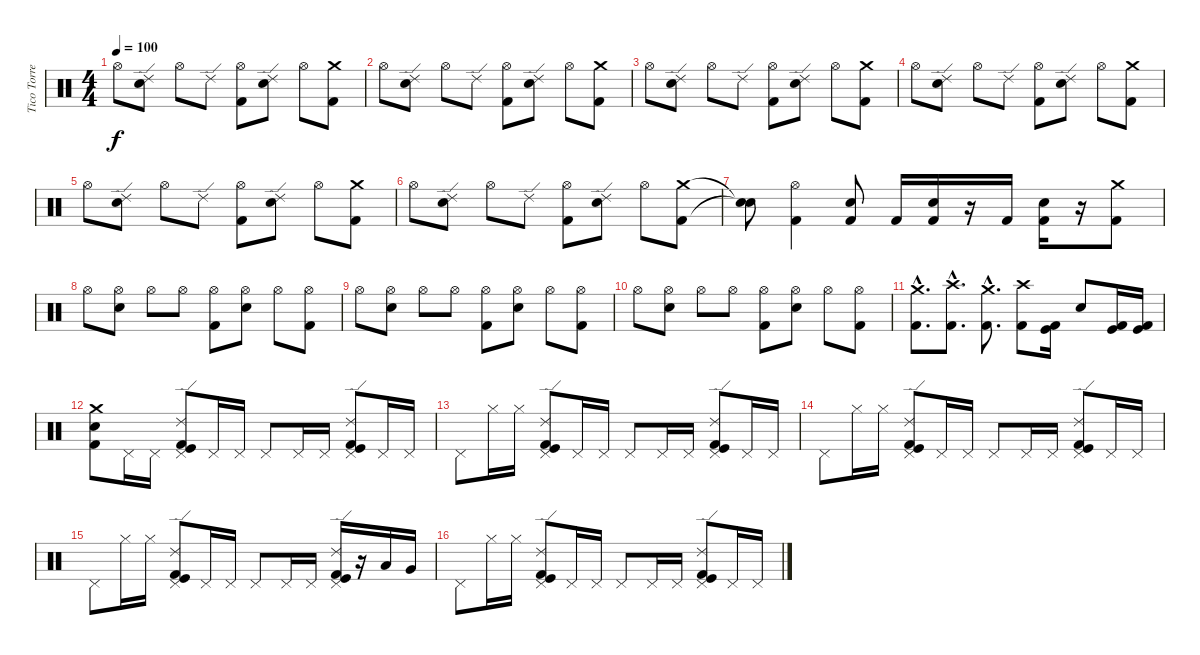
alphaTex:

\track ("Tico Torres" "Tico Torre") {instrument percussion}
\staff {score}
\articulation defaults
\ts (4 4)
\tempo 100
\clef neutral
\ks c "Hi-Hat (open)".8{dy f}
("Ride (edge) 2" "Electric Snare (hit)").8 "Hi-Hat (open)".8 "Ride (edge) 2".8 ("Hi-Hat (open)" "Kick (hit) 2").8 ("Ride (edge) 2" "Electric Snare (hit)").8 "Hi-Hat (open)".8 ("Crash medium (hit)" "Kick (hit) 2").8 |
"Hi-Hat (open)".8 ("Ride (edge) 2" "Electric Snare (hit)").8 "Hi-Hat (open)".8 "Ride (edge) 2".8 ("Hi-Hat (open)" "Kick (hit) 2").8 ("Ride (edge) 2" "Electric Snare (hit)").8 "Hi-Hat (open)".8 ("Crash medium (hit)" "Kick (hit) 2").8 |
"Hi-Hat (open)".8 ("Ride (edge) 2" "Electric Snare (hit)").8 "Hi-Hat (open)".8 "Ride (edge) 2".8 ("Hi-Hat (open)" "Kick (hit) 2").8 ("Ride (edge) 2" "Electric Snare (hit)").8 "Hi-Hat (open)".8 ("Crash medium (hit)" "Kick (hit) 2").8 |
"Hi-Hat (open)".8 ("Ride (edge) 2" "Electric Snare (hit)").8 "Hi-Hat (open)".8 "Ride (edge) 2".8 ("Hi-Hat (open)" "Kick (hit) 2").8 ("Ride (edge) 2" "Electric Snare (hit)").8 "Hi-Hat (open)".8 ("Crash medium (hit)" "Kick (hit) 2").8 |
"Hi-Hat (open)".8 ("Ride (edge) 2" "Electric Snare (hit)").8 "Hi-Hat (open)".8 "Ride (edge) 2".8 ("Hi-Hat (open)" "Kick (hit) 2").8 ("Ride (edge) 2" "Electric Snare (hit)").8 "Hi-Hat (open)".8 ("Crash medium (hit)" "Kick (hit) 2").8 |
"Hi-Hat (open)".8 ("Ride (edge) 2" "Electric Snare (hit)").8 "Hi-Hat (open)".8 "Ride (edge) 2".8 ("Hi-Hat (open)" "Kick (hit) 2").8 ("Ride (edge) 2" "Electric Snare (hit)").8 "Hi-Hat (open)".8 ("Crash medium (hit)" "Kick (hit) 2").8 |
("Snare (hit)"{t} "Snare (hit)"{t}).8 ("Hi-Hat (open)" "Kick (hit) 2").4 ("Electric Snare (hit)" "Kick (hit) 2").8 "Kick (hit) 2".16 ("Electric Snare (hit)" "Kick (hit) 2").16 r.16 "Kick (hit) 2".16 ("Electric Snare (hit)" "Kick (hit) 2").16 r.16 ("Crash medium (hit)" "Kick (hit) 2").8 |
"Hi-Hat (open)".8 ("Hi-Hat (open)" "Electric Snare (hit)").8 "Hi-Hat (open)".8 "Hi-Hat (open)".8 ("Hi-Hat (open)" "Kick (hit) 2").8 ("Hi-Hat (open)" "Electric Snare (hit)").8 "Hi-Hat (open)".8 ("Hi-Hat (open)" "Kick (hit) 2").8 |
"Hi-Hat (open)".8 ("Hi-Hat (open)" "Electric Snare (hit)").8 "Hi-Hat (open)".8 "Hi-Hat (open)".8 ("Hi-Hat (open)" "Kick (hit) 2").8 ("Hi-Hat (open)" "Electric Snare (hit)").8 "Hi-Hat (open)".8 ("Hi-Hat (open)" "Kick (hit) 2").8 |
"Hi-Hat (open)".8 ("Hi-Hat (open)" "Electric Snare (hit)").8 "Hi-Hat (open)".8 "Hi-Hat (open)".8 ("Hi-Hat (open)" "Kick (hit) 2").8 ("Hi-Hat (open)" "Electric Snare (hit)").8 "Hi-Hat (open)".8 ("Hi-Hat (open)" "Kick (hit) 2").8 |
("Crash medium (hit)"{hac} "Kick (hit) 2"{hac}).8{d} ("Crash high (hit)"{hac} "Kick (hit) 2"{hac}).8{d} ("Crash medium (hit)"{hac} "Kick (hit) 2"{hac}).8{d} ("Crash high (hit)" "Kick (hit) 2").8 ("Kick (hit)" "Kick (hit) 2").16 "Electric Snare (hit)".8 ("Kick (hit)" "Kick (hit) 2").16 ("Kick (hit)" "Kick (hit) 2").16 |
("Crash medium (hit)" "Kick (hit) 2" "Electric Snare (hit)").8{volume 13} "Pedal Hi-Hat (hit)".16 "Pedal Hi-Hat (hit)".16 ("Ride (edge) 2" "Kick (hit)" "Pedal Hi-Hat (hit)" "Kick (hit) 2").8 "Pedal Hi-Hat (hit)".16 "Pedal Hi-Hat (hit)".16 "Pedal Hi-Hat (hit)".8 "Pedal Hi-Hat (hit)".16 "Pedal Hi-Hat (hit)".16 ("Ride (edge) 2" "Kick (hit)" "Pedal Hi-Hat (hit)" "Kick (hit) 2").8 "Pedal Hi-Hat (hit)".16 "Pedal Hi-Hat (hit)".16 |
"Pedal Hi-Hat (hit)".8 "Hi-Hat (closed)".16 "Hi-Hat (closed)".16 ("Ride (edge) 2" "Kick (hit)" "Pedal Hi-Hat (hit)" "Kick (hit) 2").8 "Pedal Hi-Hat (hit)".16 "Pedal Hi-Hat (hit)".16 "Pedal Hi-Hat (hit)".8 "Pedal Hi-Hat (hit)".16 "Pedal Hi-Hat (hit)".16 ("Ride (edge) 2" "Kick (hit)" "Pedal Hi-Hat (hit)" "Kick (hit) 2").8 "Pedal Hi-Hat (hit)".16 "Pedal Hi-Hat (hit)".16 |
"Pedal Hi-Hat (hit)".8 "Hi-Hat (closed)".16 "Hi-Hat (closed)".16 ("Ride (edge) 2" "Kick (hit)" "Pedal Hi-Hat (hit)" "Kick (hit) 2").8 "Pedal Hi-Hat (hit)".16 "Pedal Hi-Hat (hit)".16 "Pedal Hi-Hat (hit)".8 "Pedal Hi-Hat (hit)".16 "Pedal Hi-Hat (hit)".16 ("Ride (edge) 2" "Kick (hit)" "Pedal Hi-Hat (hit)" "Kick (hit) 2").8 "Pedal Hi-Hat (hit)".16 "Pedal Hi-Hat (hit)".16 |
"Pedal Hi-Hat (hit)".8 "Hi-Hat (closed)".16 "Hi-Hat (closed)".16 ("Ride (edge) 2" "Kick (hit)" "Pedal Hi-Hat (hit)" "Kick (hit) 2").8 "Pedal Hi-Hat (hit)".16 "Pedal Hi-Hat (hit)".16 "Pedal Hi-Hat (hit)".8 "Pedal Hi-Hat (hit)".16 "Pedal Hi-Hat (hit)".16 ("Ride (edge) 2" "Kick (hit)" "Pedal Hi-Hat (hit)" "Kick (hit) 2").16 r.16 "Low Floor Tom (hit)".16 "Very Low Tom (hit)".16 |
"Pedal Hi-Hat (hit)".8 "Hi-Hat (closed)".16 "Hi-Hat (closed)".16 ("Ride (edge) 2" "Kick (hit)" "Pedal Hi-Hat (hit)" "Kick (hit) 2").8 "Pedal Hi-Hat (hit)".16 "Pedal Hi-Hat (hit)".16 "Pedal Hi-Hat (hit)".8 "Pedal Hi-Hat (hit)".16 "Pedal Hi-Hat (hit)".16 ("Ride (edge) 2" "Kick (hit)" "Pedal Hi-Hat (hit)" "Kick (hit) 2").8 "Pedal Hi-Hat (hit)".16 "Pedal Hi-Hat (hit)".16
